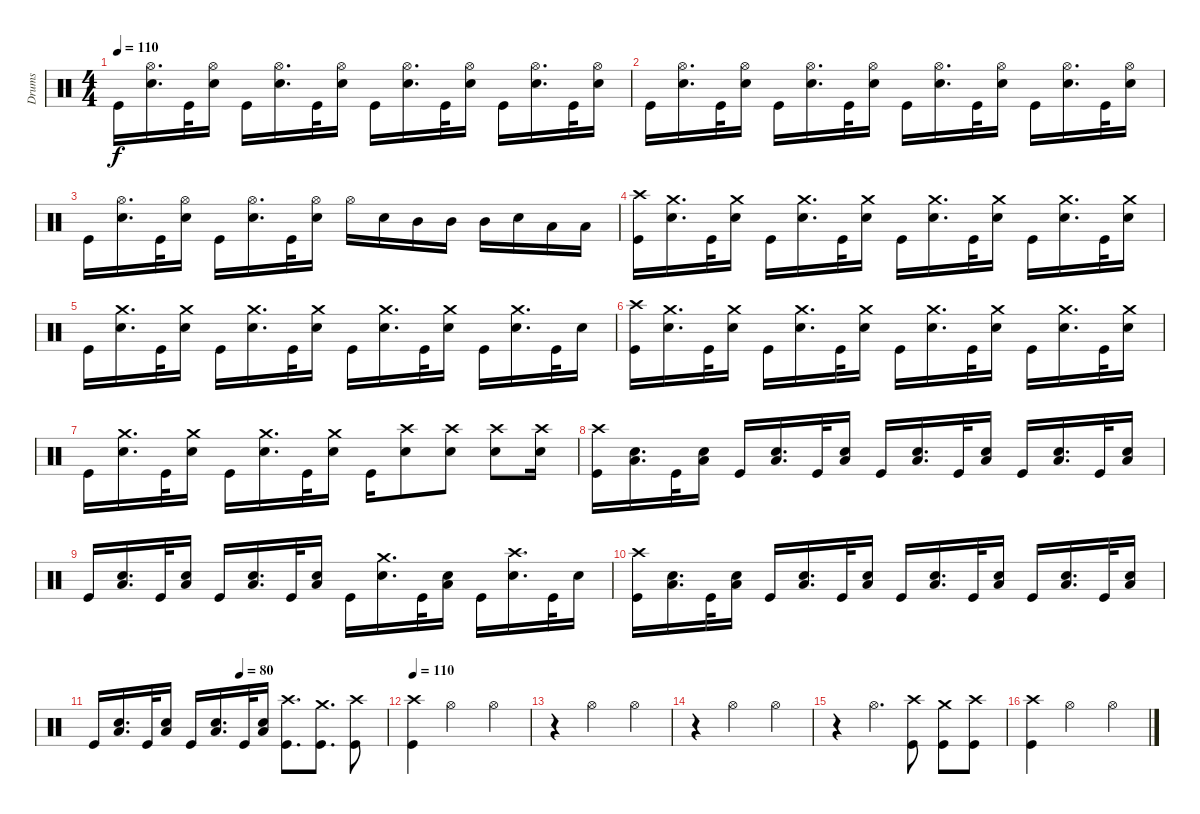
\track ("Drums" "Drums") {instrument percussion}
\staff {score}
\articulation defaults
\ts (4 4)
\tempo 110
\clef neutral
\ks c "Kick (hit)".16{dy f}
("Hi-Hat (open)" "Snare (hit) 2").16{d} "Kick (hit)".32 ("Hi-Hat (open)" "Snare (hit) 2").16 "Kick (hit)".16 ("Hi-Hat (open)" "Snare (hit) 2").16{d} "Kick (hit)".32 ("Hi-Hat (open)" "Snare (hit) 2").16 "Kick (hit)".16 ("Hi-Hat (open)" "Snare (hit) 2").16{d} "Kick (hit)".32 ("Hi-Hat (open)" "Snare (hit) 2").16 "Kick (hit)".16 ("Hi-Hat (open)" "Snare (hit) 2").16{d} "Kick (hit)".32 ("Hi-Hat (open)" "Snare (hit) 2").16 |
"Kick (hit)".16 ("Hi-Hat (open)" "Snare (hit) 2").16{d} "Kick (hit)".32 ("Hi-Hat (open)" "Snare (hit) 2").16 "Kick (hit)".16 ("Hi-Hat (open)" "Snare (hit) 2").16{d} "Kick (hit)".32 ("Hi-Hat (open)" "Snare (hit) 2").16 "Kick (hit)".16 ("Hi-Hat (open)" "Snare (hit) 2").16{d} "Kick (hit)".32 ("Hi-Hat (open)" "Snare (hit) 2").16 "Kick (hit)".16 ("Hi-Hat (open)" "Snare (hit) 2").16{d} "Kick (hit)".32 ("Hi-Hat (open)" "Snare (hit) 2").16 |
"Kick (hit)".16 ("Hi-Hat (open)" "Snare (hit) 2").16{d} "Kick (hit)".32 ("Hi-Hat (open)" "Snare (hit) 2").16 "Kick (hit)".16 ("Hi-Hat (open)" "Snare (hit) 2").16{d} "Kick (hit)".32 ("Hi-Hat (open)" "Snare (hit) 2").16 "Hi-Hat (open)".16 "Snare (hit) 2".16 "Mid Tom (hit)".16 "Mid Tom (hit)".16 "Mid Tom (hit)".16 "Snare (hit) 2".16 "Low Floor Tom (hit)".16 "Low Floor Tom (hit)".16 |
("Crash high (hit)" "Kick (hit)").16 ("Crash medium (hit)" "Snare (hit) 2").16{d} "Kick (hit)".32 ("Crash medium (hit)" "Snare (hit) 2").16 "Kick (hit)".16 ("Crash medium (hit)" "Snare (hit) 2").16{d} "Kick (hit)".32 ("Crash medium (hit)" "Snare (hit) 2").16 "Kick (hit)".16 ("Crash medium (hit)" "Snare (hit) 2").16{d} "Kick (hit)".32 ("Crash medium (hit)" "Snare (hit) 2").16 "Kick (hit)".16 ("Crash medium (hit)" "Snare (hit) 2").16{d} "Kick (hit)".32 ("Crash medium (hit)" "Snare (hit) 2").16 |
"Kick (hit)".16 ("Crash medium (hit)" "Snare (hit) 2").16{d} "Kick (hit)".32 ("Crash medium (hit)" "Snare (hit) 2").16 "Kick (hit)".16 ("Crash medium (hit)" "Snare (hit) 2").16{d} "Kick (hit)".32 ("Crash medium (hit)" "Snare (hit) 2").16 "Kick (hit)".16 ("Crash medium (hit)" "Snare (hit) 2").16{d} "Kick (hit)".32 ("Crash medium (hit)" "Snare (hit) 2").16 "Kick (hit)".16 ("Crash medium (hit)" "Snare (hit) 2").16{d} "Kick (hit)".32 "Snare (hit) 2".16 |
("Crash high (hit)" "Kick (hit)").16 ("Crash medium (hit)" "Snare (hit) 2").16{d} "Kick (hit)".32 ("Crash medium (hit)" "Snare (hit) 2").16 "Kick (hit)".16 ("Crash medium (hit)" "Snare (hit) 2").16{d} "Kick (hit)".32 ("Crash medium (hit)" "Snare (hit) 2").16 "Kick (hit)".16 ("Crash medium (hit)" "Snare (hit) 2").16{d} "Kick (hit)".32 ("Crash medium (hit)" "Snare (hit) 2").16 "Kick (hit)".16 ("Crash medium (hit)" "Snare (hit) 2").16{d} "Kick (hit)".32 ("Crash medium (hit)" "Snare (hit) 2").16 |
"Kick (hit)".16 ("Crash medium (hit)" "Snare (hit) 2").16{d} "Kick (hit)".32 ("Crash medium (hit)" "Snare (hit) 2").16 "Kick (hit)".16 ("Crash medium (hit)" "Snare (hit) 2").16{d} "Kick (hit)".32 ("Crash medium (hit)" "Snare (hit) 2").16 "Kick (hit)".16 ("Crash high (hit)" "Snare (hit) 2").8 ("Crash high (hit)" "Snare (hit) 2").8 ("Crash high (hit)" "Snare (hit) 2").8 ("Crash high (hit)" "Snare (hit) 2").16 |
("Crash high (hit)" "Kick (hit)").16 ("Low Floor Tom (hit)" "Snare (hit) 2").16{d} "Kick (hit)".32 ("Low Floor Tom (hit)" "Snare (hit) 2").16 "Kick (hit)".16 ("Low Floor Tom (hit)" "Snare (hit) 2").16{d} "Kick (hit)".32 ("Low Floor Tom (hit)" "Snare (hit) 2").16 "Kick (hit)".16 ("Low Floor Tom (hit)" "Snare (hit) 2").16{d} "Kick (hit)".32 ("Low Floor Tom (hit)" "Snare (hit) 2").16 "Kick (hit)".16 ("Low Floor Tom (hit)" "Snare (hit) 2").16{d} "Kick (hit)".32 ("Low Floor Tom (hit)" "Snare (hit) 2").16 |
"Kick (hit)".16 ("Low Floor Tom (hit)" "Snare (hit) 2").16{d} "Kick (hit)".32 ("Low Floor Tom (hit)" "Snare (hit) 2").16 "Kick (hit)".16 ("Low Floor Tom (hit)" "Snare (hit) 2").16{d} "Kick (hit)".32 ("Low Floor Tom (hit)" "Snare (hit) 2").16 "Kick (hit)".16 ("Crash medium (hit)" "Snare (hit) 2").16{d} "Kick (hit)".32 ("Low Floor Tom (hit)" "Snare (hit) 2").16 "Kick (hit)".16 ("Crash high (hit)" "Snare (hit) 2").16{d} "Kick (hit)".32 "Snare (hit) 2".16 |
("Crash high (hit)" "Kick (hit)").16 ("Low Floor Tom (hit)" "Snare (hit) 2").16{d} "Kick (hit)".32 ("Low Floor Tom (hit)" "Snare (hit) 2").16 "Kick (hit)".16 ("Low Floor Tom (hit)" "Snare (hit) 2").16{d} "Kick (hit)".32 ("Low Floor Tom (hit)" "Snare (hit) 2").16 "Kick (hit)".16 ("Low Floor Tom (hit)" "Snare (hit) 2").16{d} "Kick (hit)".32 ("Low Floor Tom (hit)" "Snare (hit) 2").16 "Kick (hit)".16 ("Low Floor Tom (hit)" "Snare (hit) 2").16{d} "Kick (hit)".32 ("Low Floor Tom (hit)" "Snare (hit) 2").16 |
\tempo (80 0.5)
"Kick (hit)".16 ("Low Floor Tom (hit)" "Snare (hit) 2").16{d} "Kick (hit)".32 ("Low Floor Tom (hit)" "Snare (hit) 2").16 "Kick (hit)".16 ("Low Floor Tom (hit)" "Snare (hit) 2").16{d} "Kick (hit)".32 ("Low Floor Tom (hit)" "Snare (hit) 2").16 ("Crash high (hit)" "Kick (hit)").8{d} ("Crash medium (hit)" "Kick (hit)").8{d} ("Crash high (hit)" "Kick (hit)").8 |
\tempo 110
("Crash high (hit)" "Kick (hit)").4 "Hi-Hat (open)".2 "Hi-Hat (open)".4 |
r.4 "Hi-Hat (open)".2 "Hi-Hat (open)".4 |
r.4 "Hi-Hat (open)".2 "Hi-Hat (open)".4 |
r.4 "Hi-Hat (open)".4{d} ("Crash high (hit)" "Kick (hit)").8 ("Crash medium (hit)" "Kick (hit)").8 ("Crash high (hit)" "Kick (hit)").8 |
("Crash high (hit)" "Kick (hit)").4 "Hi-Hat (open)".2 "Hi-Hat (open)".4
